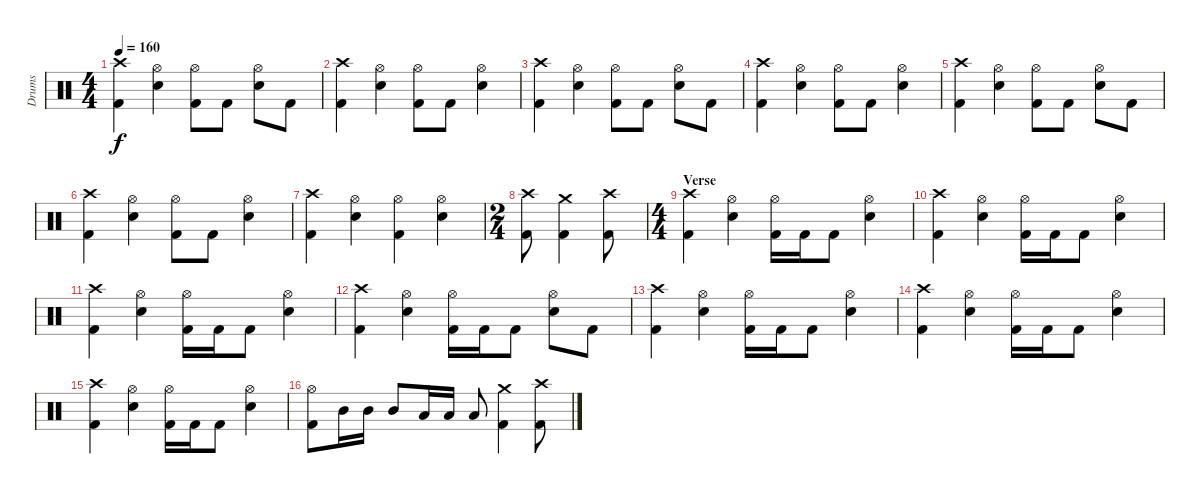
\track ("Drums" "Drums") {instrument percussion}
\staff {score}
\articulation defaults
\ts (4 4)
\tempo 160
\clef neutral
\ks c
("Kick (hit) 2" "Crash high (hit)").4{dy f} ("Electric Snare (hit)" "Hi-Hat (open)").4 ("Kick (hit) 2" "Hi-Hat (open)").8 "Kick (hit) 2".8 ("Electric Snare (hit)" "Hi-Hat (open)").8 "Kick (hit) 2".8 |
("Kick (hit) 2" "Crash high (hit)").4 ("Electric Snare (hit)" "Hi-Hat (open)").4 ("Kick (hit) 2" "Hi-Hat (open)").8 "Kick (hit) 2".8 ("Electric Snare (hit)" "Hi-Hat (open)").4 |
("Kick (hit) 2" "Crash high (hit)").4 ("Electric Snare (hit)" "Hi-Hat (open)").4 ("Kick (hit) 2" "Hi-Hat (open)").8 "Kick (hit) 2".8 ("Electric Snare (hit)" "Hi-Hat (open)").8 "Kick (hit) 2".8 |
("Kick (hit) 2" "Crash high (hit)").4 ("Electric Snare (hit)" "Hi-Hat (open)").4 ("Kick (hit) 2" "Hi-Hat (open)").8 "Kick (hit) 2".8 ("Electric Snare (hit)" "Hi-Hat (open)").4 |
("Kick (hit) 2" "Crash high (hit)").4 ("Electric Snare (hit)" "Hi-Hat (open)").4 ("Kick (hit) 2" "Hi-Hat (open)").8 "Kick (hit) 2".8 ("Electric Snare (hit)" "Hi-Hat (open)").8 "Kick (hit) 2".8 |
("Kick (hit) 2" "Crash high (hit)").4 ("Electric Snare (hit)" "Hi-Hat (open)").4 ("Kick (hit) 2" "Hi-Hat (open)").8 "Kick (hit) 2".8 ("Electric Snare (hit)" "Hi-Hat (open)").4 |
("Kick (hit) 2" "Crash high (hit)").4 ("Electric Snare (hit)" "Hi-Hat (open)").4 ("Kick (hit) 2" "Hi-Hat (open)").4 ("Electric Snare (hit)" "Hi-Hat (open)").4 |
\ts (2 4)
("Kick (hit) 2" "Crash high (hit)").8 ("Kick (hit) 2" "Crash medium (hit)").4 ("Kick (hit) 2" "Crash high (hit)").8 |
\ts (4 4)
\section ("" "Verse")
("Kick (hit) 2" "Crash high (hit)").4 ("Electric Snare (hit)" "Hi-Hat (open)").4 ("Kick (hit) 2" "Hi-Hat (open)").16 "Kick (hit) 2".16 "Kick (hit) 2".8 ("Electric Snare (hit)" "Hi-Hat (open)").4 |
("Kick (hit) 2" "Crash high (hit)").4 ("Electric Snare (hit)" "Hi-Hat (open)").4 ("Kick (hit) 2" "Hi-Hat (open)").16 "Kick (hit) 2".16 "Kick (hit) 2".8 ("Electric Snare (hit)" "Hi-Hat (open)").4 |
("Kick (hit) 2" "Crash high (hit)").4 ("Electric Snare (hit)" "Hi-Hat (open)").4 ("Kick (hit) 2" "Hi-Hat (open)").16 "Kick (hit) 2".16 "Kick (hit) 2".8 ("Electric Snare (hit)" "Hi-Hat (open)").4 |
("Kick (hit) 2" "Crash high (hit)").4 ("Electric Snare (hit)" "Hi-Hat (open)").4 ("Kick (hit) 2" "Hi-Hat (open)").16 "Kick (hit) 2".16 "Kick (hit) 2".8 ("Electric Snare (hit)" "Hi-Hat (open)").8 "Kick (hit) 2".8 |
("Kick (hit) 2" "Crash high (hit)").4 ("Electric Snare (hit)" "Hi-Hat (open)").4 ("Kick (hit) 2" "Hi-Hat (open)").16 "Kick (hit) 2".16 "Kick (hit) 2".8 ("Electric Snare (hit)" "Hi-Hat (open)").4 |
("Kick (hit) 2" "Crash high (hit)").4 ("Electric Snare (hit)" "Hi-Hat (open)").4 ("Kick (hit) 2" "Hi-Hat (open)").16 "Kick (hit) 2".16 "Kick (hit) 2".8 ("Electric Snare (hit)" "Hi-Hat (open)").4 |
("Kick (hit) 2" "Crash high (hit)").4 ("Electric Snare (hit)" "Hi-Hat (open)").4 ("Kick (hit) 2" "Hi-Hat (open)").16 "Kick (hit) 2".16 "Kick (hit) 2".8 ("Electric Snare (hit)" "Hi-Hat (open)").4 |
("Kick (hit) 2" "Hi-Hat (open)").8 "Mid Tom (hit)".16 "Mid Tom (hit)".16 "Mid Tom (hit)".8 "Low Tom (hit)".16 "Low Tom (hit)".16 "Low Tom (hit)".8 ("Kick (hit) 2" "Crash medium (hit)").4 ("Kick (hit) 2" "Crash high (hit)").8
